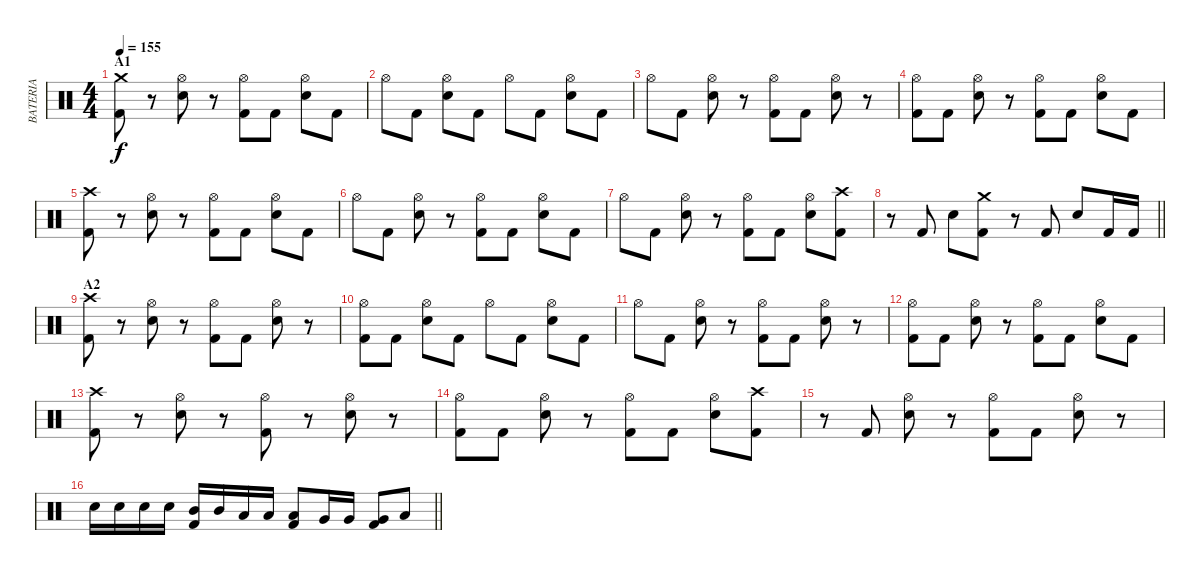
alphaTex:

\track ("BATERIA" "BATERIA") {instrument percussion}
\staff {score}
\articulation defaults
\ts (4 4)
\section ("" "A1")
\tempo 155
\clef neutral
\ks c
("Kick (hit) 2" "Crash medium (hit)").8{dy f} r.8 ("Hi-Hat (open)" "Electric Snare (hit)").8 r.8 ("Kick (hit) 2" "Hi-Hat (open)").8 "Kick (hit) 2".8 ("Hi-Hat (open)" "Electric Snare (hit)").8 "Kick (hit) 2".8 |
"Hi-Hat (open)".8 "Kick (hit) 2".8 ("Hi-Hat (open)" "Electric Snare (hit)").8 "Kick (hit) 2".8 "Hi-Hat (open)".8 "Kick (hit) 2".8 ("Hi-Hat (open)" "Electric Snare (hit)").8 "Kick (hit) 2".8 |
"Hi-Hat (open)".8 "Kick (hit) 2".8 ("Hi-Hat (open)" "Electric Snare (hit)").8 r.8 ("Kick (hit) 2" "Hi-Hat (open)").8 "Kick (hit) 2".8 ("Hi-Hat (open)" "Electric Snare (hit)").8 r.8 |
("Kick (hit) 2" "Hi-Hat (open)").8 "Kick (hit) 2".8 ("Hi-Hat (open)" "Electric Snare (hit)").8 r.8 ("Kick (hit) 2" "Hi-Hat (open)").8 "Kick (hit) 2".8 ("Hi-Hat (open)" "Electric Snare (hit)").8 "Kick (hit) 2".8 |
("Kick (hit) 2" "Crash high (hit)").8 r.8 ("Hi-Hat (open)" "Electric Snare (hit)").8 r.8 ("Kick (hit) 2" "Hi-Hat (open)").8 "Kick (hit) 2".8 ("Hi-Hat (open)" "Electric Snare (hit)").8 "Kick (hit) 2".8 |
"Hi-Hat (open)".8 "Kick (hit) 2".8 ("Hi-Hat (open)" "Electric Snare (hit)").8 r.8 ("Kick (hit) 2" "Hi-Hat (open)").8 "Kick (hit) 2".8 ("Hi-Hat (open)" "Electric Snare (hit)").8 "Kick (hit) 2".8 |
"Hi-Hat (open)".8 "Kick (hit) 2".8 ("Hi-Hat (open)" "Electric Snare (hit)").8 r.8 ("Kick (hit) 2" "Hi-Hat (open)").8 "Kick (hit) 2".8 ("Hi-Hat (open)" "Electric Snare (hit)").8 ("Kick (hit) 2" "Crash high (hit)").8 |
\barLineRight lightlight
r.8 "Kick (hit) 2".8 "Electric Snare (hit)".8 ("Kick (hit) 2" "Crash medium (hit)").8 r.8 "Kick (hit) 2".8 "Electric Snare (hit)".8 "Kick (hit) 2".16 "Kick (hit) 2".16 |
\section ("" "A2")
("Kick (hit) 2" "Crash high (hit)").8 r.8 ("Hi-Hat (open)" "Electric Snare (hit)").8 r.8 ("Kick (hit) 2" "Hi-Hat (open)").8 "Kick (hit) 2".8 ("Hi-Hat (open)" "Electric Snare (hit)").8 r.8 |
("Kick (hit) 2" "Hi-Hat (open)").8 "Kick (hit) 2".8 ("Hi-Hat (open)" "Electric Snare (hit)").8 "Kick (hit) 2".8 "Hi-Hat (open)".8 "Kick (hit) 2".8 ("Hi-Hat (open)" "Electric Snare (hit)").8 "Kick (hit) 2".8 |
"Hi-Hat (open)".8 "Kick (hit) 2".8 ("Hi-Hat (open)" "Electric Snare (hit)").8 r.8 ("Kick (hit) 2" "Hi-Hat (open)").8 "Kick (hit) 2".8 ("Hi-Hat (open)" "Electric Snare (hit)").8 r.8 |
("Kick (hit) 2" "Hi-Hat (open)").8 "Kick (hit) 2".8 ("Hi-Hat (open)" "Electric Snare (hit)").8 r.8 ("Kick (hit) 2" "Hi-Hat (open)").8 "Kick (hit) 2".8 ("Hi-Hat (open)" "Electric Snare (hit)").8 "Kick (hit) 2".8 |
("Kick (hit) 2" "Crash high (hit)").8 r.8 ("Hi-Hat (open)" "Electric Snare (hit)").8 r.8 ("Kick (hit) 2" "Hi-Hat (open)").8 r.8 ("Hi-Hat (open)" "Electric Snare (hit)").8 r.8 |
("Kick (hit) 2" "Hi-Hat (open)").8 "Kick (hit) 2".8 ("Hi-Hat (open)" "Electric Snare (hit)").8 r.8 ("Kick (hit) 2" "Hi-Hat (open)").8 "Kick (hit) 2".8 ("Hi-Hat (open)" "Electric Snare (hit)").8 ("Kick (hit) 2" "Crash high (hit)").8 |
r.8 "Kick (hit) 2".8 ("Hi-Hat (open)" "Electric Snare (hit)").8 r.8 ("Kick (hit) 2" "Hi-Hat (open)").8 "Kick (hit) 2".8 ("Hi-Hat (open)" "Electric Snare (hit)").8 r.8 |
\barLineRight lightlight "Electric Snare (hit)".16 "Electric Snare (hit)".16 "Electric Snare (hit)".16 "Electric Snare (hit)".16
("Kick (hit) 2" "Mid Tom (hit)").16 "Mid Tom (hit)".16 "Low Tom (hit)".16 "Low Tom (hit)".16 ("Kick (hit) 2" "Low Tom (hit)").8 "Very Low Tom (hit)".16 "Very Low Tom (hit)".16 ("Kick (hit) 2" "Very Low Tom (hit)").8 "Low Floor Tom (hit)".8
